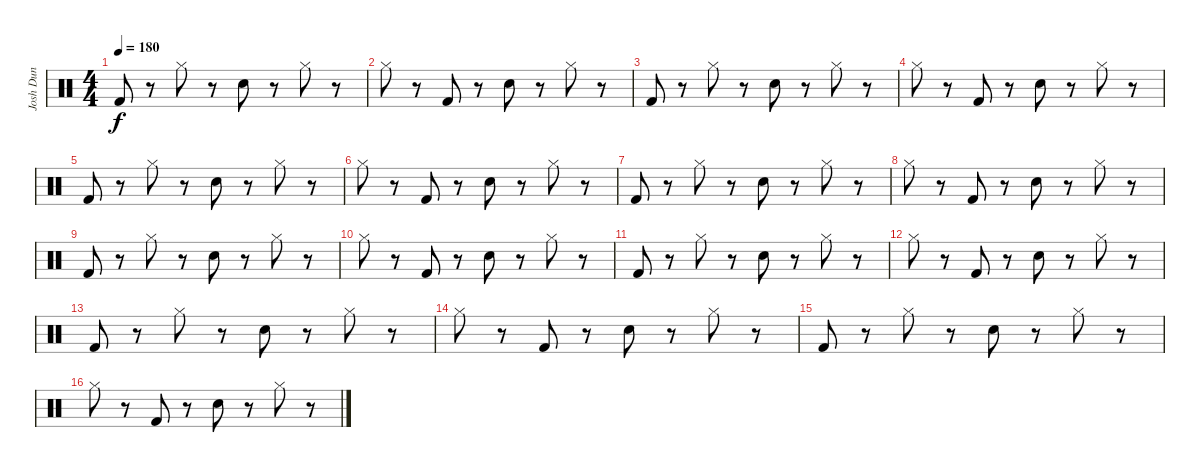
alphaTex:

\track ("Josh Dun" "Josh Dun") {instrument percussion}
\staff {score}
\articulation defaults
\ts (4 4)
\tempo 180
\clef neutral
\ks c "Kick (hit) 2".8{dy f}
r.8 "Hi-Hat (closed)".8 r.8 "Snare (hit) 2".8 r.8 "Hi-Hat (closed)".8 r.8 |
"Hi-Hat (closed)".8 r.8 "Kick (hit) 2".8 r.8 "Snare (hit) 2".8 r.8 "Hi-Hat (closed)".8 r.8 |
"Kick (hit) 2".8 r.8 "Hi-Hat (closed)".8 r.8 "Snare (hit) 2".8 r.8 "Hi-Hat (closed)".8 r.8 |
"Hi-Hat (closed)".8 r.8 "Kick (hit) 2".8 r.8 "Snare (hit) 2".8 r.8 "Hi-Hat (closed)".8 r.8 |
"Kick (hit) 2".8 r.8 "Hi-Hat (closed)".8 r.8 "Snare (hit) 2".8 r.8 "Hi-Hat (closed)".8 r.8 |
"Hi-Hat (closed)".8 r.8 "Kick (hit) 2".8 r.8 "Snare (hit) 2".8 r.8 "Hi-Hat (closed)".8 r.8 |
"Kick (hit) 2".8 r.8 "Hi-Hat (closed)".8 r.8 "Snare (hit) 2".8 r.8 "Hi-Hat (closed)".8 r.8 |
"Hi-Hat (closed)".8 r.8 "Kick (hit) 2".8 r.8 "Snare (hit) 2".8 r.8 "Hi-Hat (closed)".8 r.8 |
"Kick (hit) 2".8 r.8 "Hi-Hat (closed)".8 r.8 "Snare (hit) 2".8 r.8 "Hi-Hat (closed)".8 r.8 |
"Hi-Hat (closed)".8 r.8 "Kick (hit) 2".8 r.8 "Snare (hit) 2".8 r.8 "Hi-Hat (closed)".8 r.8 |
"Kick (hit) 2".8 r.8 "Hi-Hat (closed)".8 r.8 "Snare (hit) 2".8 r.8 "Hi-Hat (closed)".8 r.8 |
"Hi-Hat (closed)".8 r.8 "Kick (hit) 2".8 r.8 "Snare (hit) 2".8 r.8 "Hi-Hat (closed)".8 r.8 |
"Kick (hit) 2".8 r.8 "Hi-Hat (closed)".8 r.8 "Snare (hit) 2".8 r.8 "Hi-Hat (closed)".8 r.8 |
"Hi-Hat (closed)".8 r.8 "Kick (hit) 2".8 r.8 "Snare (hit) 2".8 r.8 "Hi-Hat (closed)".8 r.8 |
"Kick (hit) 2".8 r.8 "Hi-Hat (closed)".8 r.8 "Snare (hit) 2".8 r.8 "Hi-Hat (closed)".8 r.8 |
"Hi-Hat (closed)".8 r.8 "Kick (hit) 2".8 r.8 "Snare (hit) 2".8 r.8 "Hi-Hat (closed)".8 r.8
